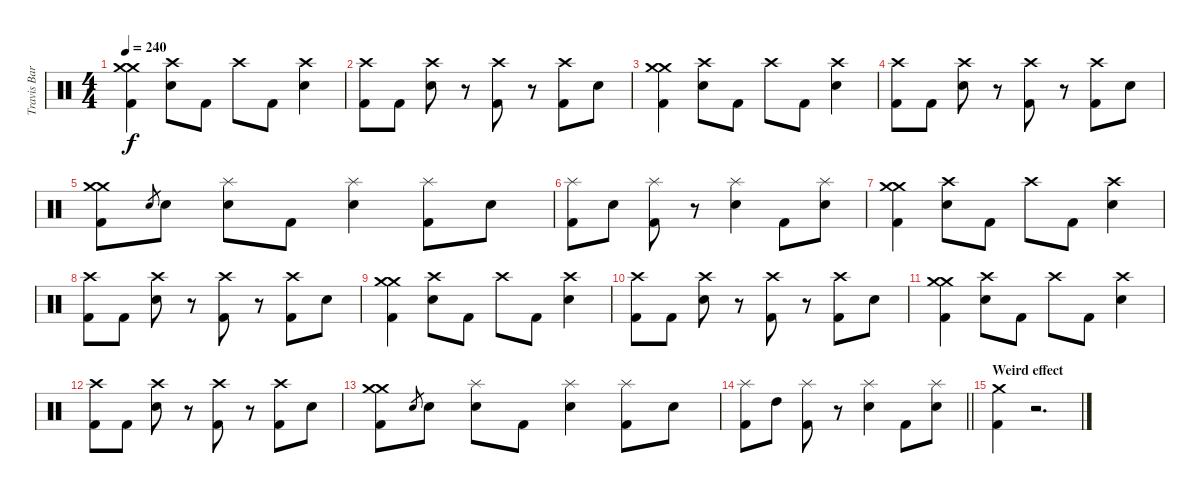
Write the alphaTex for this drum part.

\track ("Travis Barker - Drums" "Travis Bar") {instrument percussion}
\staff {score}
\articulation defaults
\ts (4 4)
\tempo 240
\clef neutral
\ks c
("Crash medium (hit)" "Crash medium (hit)" "Kick (hit) 2").4{dy f} ("Crash high (hit)" "Electric Snare (hit)").8 "Kick (hit) 2".8 "Crash high (hit)".8 "Kick (hit) 2".8 ("Crash high (hit)" "Electric Snare (hit)").4 |
("Crash high (hit)" "Kick (hit) 2").8 "Kick (hit) 2".8 ("Crash high (hit)" "Electric Snare (hit)").8 r.8 ("Crash high (hit)" "Kick (hit) 2").8 r.8 ("Crash high (hit)" "Kick (hit) 2").8 "Electric Snare (hit)".8 |
("Crash medium (hit)" "Crash medium (hit)" "Kick (hit) 2").4 ("Crash high (hit)" "Electric Snare (hit)").8 "Kick (hit) 2".8 "Crash high (hit)".8 "Kick (hit) 2".8 ("Crash high (hit)" "Electric Snare (hit)").4 |
("Crash high (hit)" "Kick (hit) 2").8 "Kick (hit) 2".8 ("Crash high (hit)" "Electric Snare (hit)").8 r.8 ("Crash high (hit)" "Kick (hit) 2").8 r.8 ("Crash high (hit)" "Kick (hit) 2").8 "Electric Snare (hit)".8 |
("Crash medium (hit)" "Crash medium (hit)" "Kick (hit) 2").8 "Electric Snare (hit)".8{gr} "Electric Snare (hit)".8 ("Splash (hit)" "Electric Snare (hit)").8 "Kick (hit) 2".8 ("Splash (hit)" "Electric Snare (hit)").4 ("Splash (hit)" "Kick (hit) 2").8 "Electric Snare (hit)".8 |
("Splash (hit)" "Kick (hit) 2").8 "Electric Snare (hit)".8 ("Splash (hit)" "Kick (hit) 2").8 r.8 ("Splash (hit)" "Electric Snare (hit)").4 "Kick (hit) 2".8 ("Splash (hit)" "Electric Snare (hit)").8 |
("Crash medium (hit)" "Crash medium (hit)" "Kick (hit) 2").4 ("Crash high (hit)" "Electric Snare (hit)").8 "Kick (hit) 2".8 "Crash high (hit)".8 "Kick (hit) 2".8 ("Crash high (hit)" "Electric Snare (hit)").4 |
("Crash high (hit)" "Kick (hit) 2").8 "Kick (hit) 2".8 ("Crash high (hit)" "Electric Snare (hit)").8 r.8 ("Crash high (hit)" "Kick (hit) 2").8 r.8 ("Crash high (hit)" "Kick (hit) 2").8 "Electric Snare (hit)".8 |
("Crash medium (hit)" "Crash medium (hit)" "Kick (hit) 2").4 ("Crash high (hit)" "Electric Snare (hit)").8 "Kick (hit) 2".8 "Crash high (hit)".8 "Kick (hit) 2".8 ("Crash high (hit)" "Electric Snare (hit)").4 |
("Crash high (hit)" "Kick (hit) 2").8 "Kick (hit) 2".8 ("Crash high (hit)" "Electric Snare (hit)").8 r.8 ("Crash high (hit)" "Kick (hit) 2").8 r.8 ("Crash high (hit)" "Kick (hit) 2").8 "Electric Snare (hit)".8 |
("Crash medium (hit)" "Crash medium (hit)" "Kick (hit) 2").4 ("Crash high (hit)" "Electric Snare (hit)").8 "Kick (hit) 2".8 "Crash high (hit)".8 "Kick (hit) 2".8 ("Crash high (hit)" "Electric Snare (hit)").4 |
("Crash high (hit)" "Kick (hit) 2").8 "Kick (hit) 2".8 ("Crash high (hit)" "Electric Snare (hit)").8 r.8 ("Crash high (hit)" "Kick (hit) 2").8 r.8 ("Crash high (hit)" "Kick (hit) 2").8 "Electric Snare (hit)".8 |
("Crash medium (hit)" "Crash medium (hit)" "Kick (hit) 2").8 "Electric Snare (hit)".8{gr} "Electric Snare (hit)".8 ("Splash (hit)" "Electric Snare (hit)").8 "Kick (hit) 2".8 ("Splash (hit)" "Electric Snare (hit)").4 ("Splash (hit)" "Kick (hit) 2").8 "Electric Snare (hit)".8 |
\barLineRight lightlight
("Splash (hit)" "Kick (hit) 2").8 "High Tom (hit)".8 ("Splash (hit)" "Kick (hit) 2").8 r.8 ("Splash (hit)" "Electric Snare (hit)").4 "Kick (hit) 2".8 ("Splash (hit)" "Electric Snare (hit)").8 |
\section ("" "Weird effect")
("Crash medium (hit)" "Kick (hit) 2").4 r.2{d}
